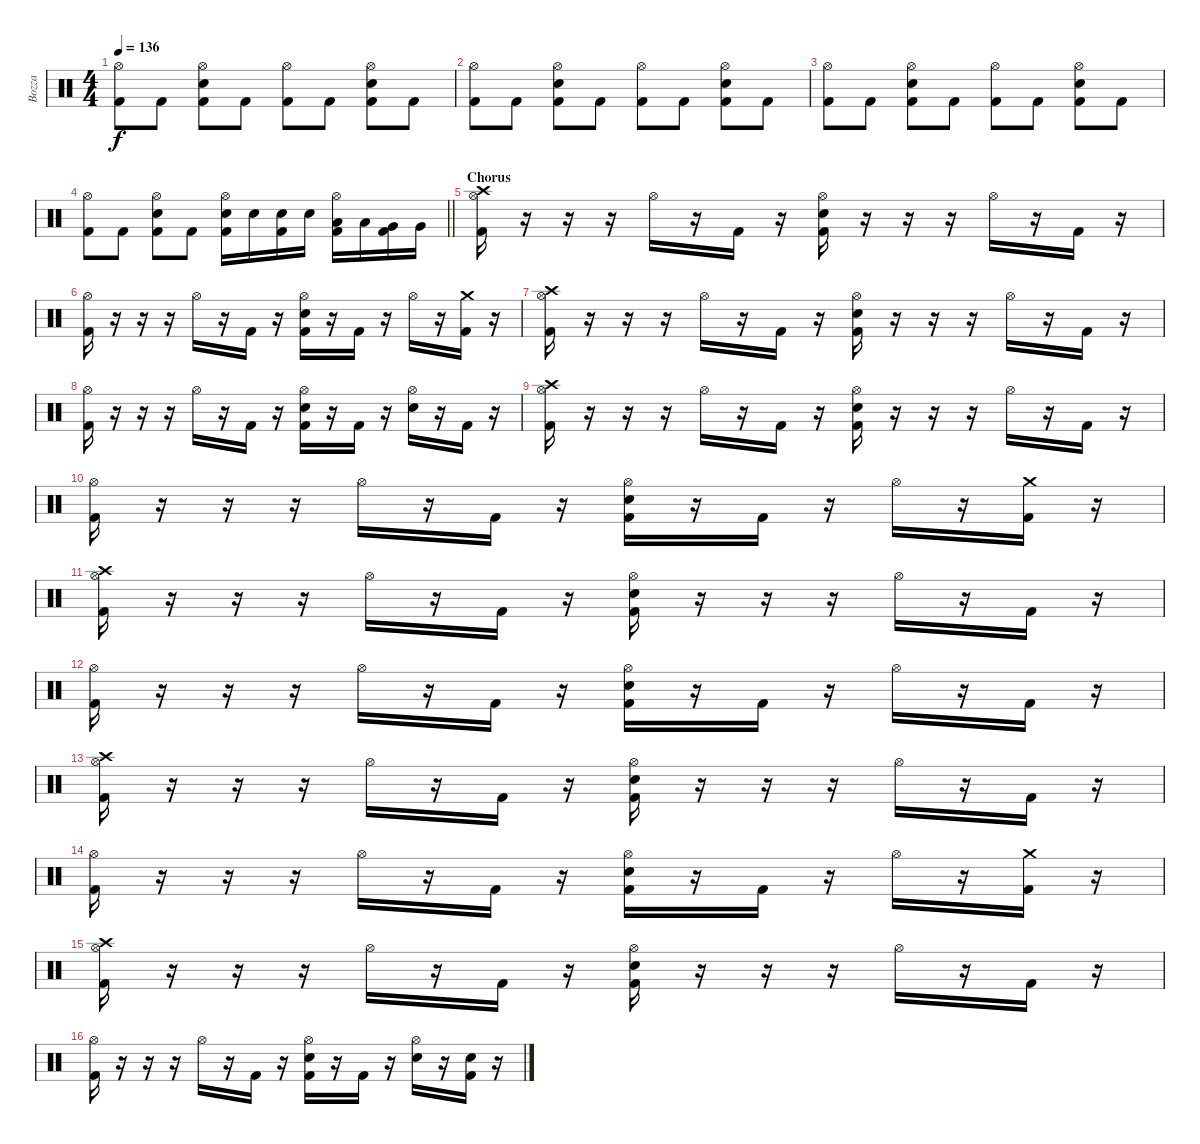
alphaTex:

\track ("Bozza" "Bozza") {instrument percussion}
\staff {score}
\articulation defaults
\ts (4 4)
\tempo 136
\clef neutral
\ks c
("Hi-Hat (open)" "Kick (hit) 2").8{dy f} "Kick (hit) 2".8 ("Hi-Hat (open)" "Snare (hit) 2" "Kick (hit) 2").8 "Kick (hit) 2".8 ("Hi-Hat (open)" "Kick (hit) 2").8 "Kick (hit) 2".8 ("Hi-Hat (open)" "Snare (hit) 2" "Kick (hit) 2").8 "Kick (hit) 2".8 |
("Hi-Hat (open)" "Kick (hit) 2").8 "Kick (hit) 2".8 ("Hi-Hat (open)" "Snare (hit) 2" "Kick (hit) 2").8 "Kick (hit) 2".8 ("Hi-Hat (open)" "Kick (hit) 2").8 "Kick (hit) 2".8 ("Hi-Hat (open)" "Snare (hit) 2" "Kick (hit) 2").8 "Kick (hit) 2".8 |
("Hi-Hat (open)" "Kick (hit) 2").8 "Kick (hit) 2".8 ("Hi-Hat (open)" "Snare (hit) 2" "Kick (hit) 2").8 "Kick (hit) 2".8 ("Hi-Hat (open)" "Kick (hit) 2").8 "Kick (hit) 2".8 ("Hi-Hat (open)" "Snare (hit) 2" "Kick (hit) 2").8 "Kick (hit) 2".8 |
\barLineRight lightlight
("Hi-Hat (open)" "Kick (hit) 2").8 "Kick (hit) 2".8 ("Hi-Hat (open)" "Snare (hit) 2" "Kick (hit) 2").8 "Kick (hit) 2".8 ("Hi-Hat (open)" "Snare (hit) 2" "Kick (hit) 2").16 "Snare (hit) 2".16 ("Snare (hit) 2" "Kick (hit) 2").16 "Snare (hit) 2".16 ("Hi-Hat (open)" "Low Tom (hit)" "Kick (hit) 2").16 "Low Tom (hit)".16 ("Very Low Tom (hit)" "Kick (hit) 2").16 "Very Low Tom (hit)".16 |
\section ("" "Chorus")
("Crash high (hit)" "Hi-Hat (open)" "Kick (hit) 2").16 r.16 r.16 r.16 "Hi-Hat (open)".16 r.16 "Kick (hit) 2".16 r.16 ("Hi-Hat (open)" "Snare (hit) 2" "Kick (hit) 2").16 r.16 r.16 r.16 "Hi-Hat (open)".16 r.16 "Kick (hit) 2".16 r.16 |
("Hi-Hat (open)" "Kick (hit) 2").16 r.16 r.16 r.16 "Hi-Hat (open)".16 r.16 "Kick (hit) 2".16 r.16 ("Hi-Hat (open)" "Snare (hit) 2" "Kick (hit) 2").16 r.16 "Kick (hit) 2".16 r.16 "Hi-Hat (open)".16 r.16 ("Crash medium (hit)" "Kick (hit) 2").16 r.16 |
("Crash high (hit)" "Hi-Hat (open)" "Kick (hit) 2").16 r.16 r.16 r.16 "Hi-Hat (open)".16 r.16 "Kick (hit) 2".16 r.16 ("Hi-Hat (open)" "Snare (hit) 2" "Kick (hit) 2").16 r.16 r.16 r.16 "Hi-Hat (open)".16 r.16 "Kick (hit) 2".16 r.16 |
("Hi-Hat (open)" "Kick (hit) 2").16 r.16 r.16 r.16 "Hi-Hat (open)".16 r.16 "Kick (hit) 2".16 r.16 ("Hi-Hat (open)" "Snare (hit) 2" "Kick (hit) 2").16 r.16 "Kick (hit) 2".16 r.16 ("Hi-Hat (open)" "Snare (hit) 2").16 r.16 "Kick (hit) 2".16 r.16 |
("Crash high (hit)" "Hi-Hat (open)" "Kick (hit) 2").16 r.16 r.16 r.16 "Hi-Hat (open)".16 r.16 "Kick (hit) 2".16 r.16 ("Hi-Hat (open)" "Snare (hit) 2" "Kick (hit) 2").16 r.16 r.16 r.16 "Hi-Hat (open)".16 r.16 "Kick (hit) 2".16 r.16 |
("Hi-Hat (open)" "Kick (hit) 2").16 r.16 r.16 r.16 "Hi-Hat (open)".16 r.16 "Kick (hit) 2".16 r.16 ("Hi-Hat (open)" "Snare (hit) 2" "Kick (hit) 2").16 r.16 "Kick (hit) 2".16 r.16 "Hi-Hat (open)".16 r.16 ("Crash medium (hit)" "Kick (hit) 2").16 r.16 |
("Crash high (hit)" "Hi-Hat (open)" "Kick (hit) 2").16 r.16 r.16 r.16 "Hi-Hat (open)".16 r.16 "Kick (hit) 2".16 r.16 ("Hi-Hat (open)" "Snare (hit) 2" "Kick (hit) 2").16 r.16 r.16 r.16 "Hi-Hat (open)".16 r.16 "Kick (hit) 2".16 r.16 |
("Hi-Hat (open)" "Kick (hit) 2").16 r.16 r.16 r.16 "Hi-Hat (open)".16 r.16 "Kick (hit) 2".16 r.16 ("Hi-Hat (open)" "Snare (hit) 2" "Kick (hit) 2").16 r.16 "Kick (hit) 2".16 r.16 "Hi-Hat (open)".16 r.16 "Kick (hit) 2".16 r.16 |
("Crash high (hit)" "Hi-Hat (open)" "Kick (hit) 2").16 r.16 r.16 r.16 "Hi-Hat (open)".16 r.16 "Kick (hit) 2".16 r.16 ("Hi-Hat (open)" "Snare (hit) 2" "Kick (hit) 2").16 r.16 r.16 r.16 "Hi-Hat (open)".16 r.16 "Kick (hit) 2".16 r.16 |
("Hi-Hat (open)" "Kick (hit) 2").16 r.16 r.16 r.16 "Hi-Hat (open)".16 r.16 "Kick (hit) 2".16 r.16 ("Hi-Hat (open)" "Snare (hit) 2" "Kick (hit) 2").16 r.16 "Kick (hit) 2".16 r.16 "Hi-Hat (open)".16 r.16 ("Crash medium (hit)" "Kick (hit) 2").16 r.16 |
("Crash high (hit)" "Hi-Hat (open)" "Kick (hit) 2").16 r.16 r.16 r.16 "Hi-Hat (open)".16 r.16 "Kick (hit) 2".16 r.16 ("Hi-Hat (open)" "Snare (hit) 2" "Kick (hit) 2").16 r.16 r.16 r.16 "Hi-Hat (open)".16 r.16 "Kick (hit) 2".16 r.16 |
("Hi-Hat (open)" "Kick (hit) 2").16 r.16 r.16 r.16 "Hi-Hat (open)".16 r.16 "Kick (hit) 2".16 r.16 ("Hi-Hat (open)" "Snare (hit) 2" "Kick (hit) 2").16 r.16 "Kick (hit) 2".16 r.16 ("Hi-Hat (open)" "Snare (hit) 2").16 r.16 ("Snare (hit) 2" "Kick (hit) 2").16 r.16
